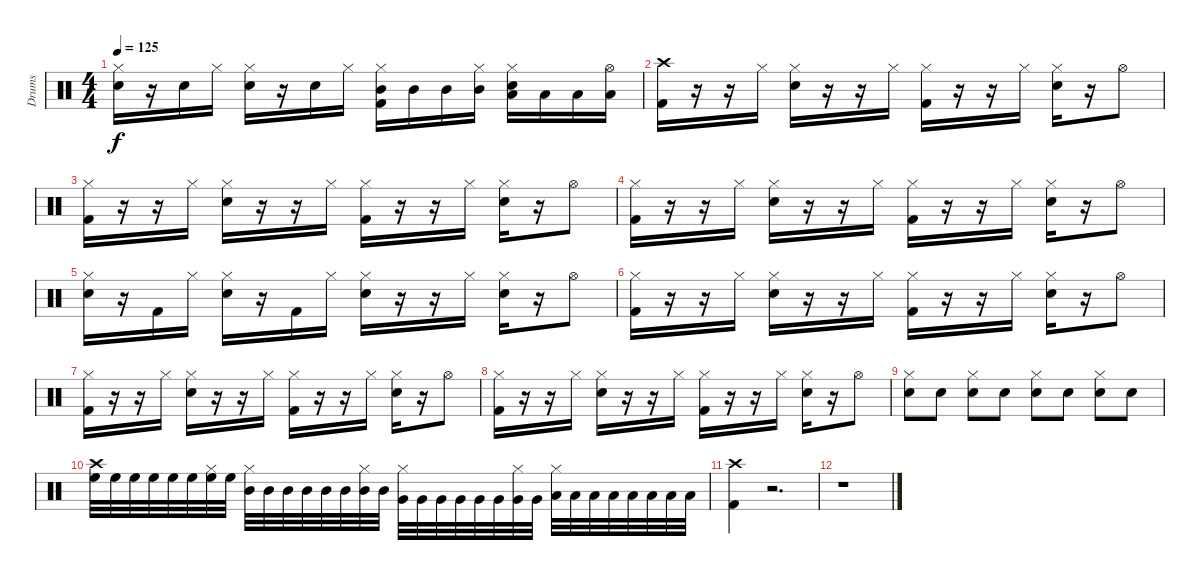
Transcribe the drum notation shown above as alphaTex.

\track ("Drums" "Drums") {instrument percussion}
\staff {score}
\articulation defaults
\ts (4 4)
\tempo 125
\clef neutral
\ks c
("Hi-Hat (closed)" "Electric Snare (hit)").16{dy f} r.16 "Electric Snare (hit)".16 "Hi-Hat (closed)".16 ("Hi-Hat (closed)" "Electric Snare (hit)").16 r.16 "Electric Snare (hit)".16 "Hi-Hat (closed)".16 ("Hi-Hat (closed)" "Kick (hit) 2" "Mid Tom (hit)").16 "Mid Tom (hit)".16 "Mid Tom (hit)".16 ("Hi-Hat (closed)" "Mid Tom (hit)").16 ("Hi-Hat (closed)" "Electric Snare (hit)" "Low Tom (hit)").16 "Low Tom (hit)".16 "Low Tom (hit)".16 ("Hi-Hat (open)" "Low Tom (hit)").16 |
("Crash high (hit)" "Kick (hit) 2").16 r.16 r.16 "Hi-Hat (closed)".16 ("Hi-Hat (closed)" "Electric Snare (hit)").16 r.16 r.16 "Hi-Hat (closed)".16 ("Hi-Hat (closed)" "Kick (hit) 2").16 r.16 r.16 "Hi-Hat (closed)".16 ("Hi-Hat (closed)" "Electric Snare (hit)").16 r.16 "Hi-Hat (open)".8 |
("Hi-Hat (closed)" "Kick (hit) 2").16 r.16 r.16 "Hi-Hat (closed)".16 ("Hi-Hat (closed)" "Electric Snare (hit)").16 r.16 r.16 "Hi-Hat (closed)".16 ("Hi-Hat (closed)" "Kick (hit) 2").16 r.16 r.16 "Hi-Hat (closed)".16 ("Hi-Hat (closed)" "Electric Snare (hit)").16 r.16 "Hi-Hat (open)".8 |
("Hi-Hat (closed)" "Kick (hit) 2").16 r.16 r.16 "Hi-Hat (closed)".16 ("Hi-Hat (closed)" "Electric Snare (hit)").16 r.16 r.16 "Hi-Hat (closed)".16 ("Hi-Hat (closed)" "Kick (hit) 2").16 r.16 r.16 "Hi-Hat (closed)".16 ("Hi-Hat (closed)" "Electric Snare (hit)").16 r.16 "Hi-Hat (open)".8 |
("Hi-Hat (closed)" "Electric Snare (hit)").16 r.16 "Kick (hit) 2".16 "Hi-Hat (closed)".16 ("Hi-Hat (closed)" "Electric Snare (hit)").16 r.16 "Kick (hit) 2".16 "Hi-Hat (closed)".16 ("Hi-Hat (closed)" "Electric Snare (hit)").16 r.16 r.16 "Hi-Hat (closed)".16 ("Hi-Hat (closed)" "Electric Snare (hit)").16 r.16 "Hi-Hat (open)".8 |
("Hi-Hat (closed)" "Kick (hit) 2").16 r.16 r.16 "Hi-Hat (closed)".16 ("Hi-Hat (closed)" "Electric Snare (hit)").16 r.16 r.16 "Hi-Hat (closed)".16 ("Hi-Hat (closed)" "Kick (hit) 2").16 r.16 r.16 "Hi-Hat (closed)".16 ("Hi-Hat (closed)" "Electric Snare (hit)").16 r.16 "Hi-Hat (open)".8 |
("Hi-Hat (closed)" "Kick (hit) 2").16 r.16 r.16 "Hi-Hat (closed)".16 ("Hi-Hat (closed)" "Electric Snare (hit)").16 r.16 r.16 "Hi-Hat (closed)".16 ("Hi-Hat (closed)" "Kick (hit) 2").16 r.16 r.16 "Hi-Hat (closed)".16 ("Hi-Hat (closed)" "Electric Snare (hit)").16 r.16 "Hi-Hat (open)".8 |
("Hi-Hat (closed)" "Kick (hit) 2").16 r.16 r.16 "Hi-Hat (closed)".16 ("Hi-Hat (closed)" "Electric Snare (hit)").16 r.16 r.16 "Hi-Hat (closed)".16 ("Hi-Hat (closed)" "Kick (hit) 2").16 r.16 r.16 "Hi-Hat (closed)".16 ("Hi-Hat (closed)" "Electric Snare (hit)").16 r.16 "Hi-Hat (open)".8 |
("Hi-Hat (closed)" "Electric Snare (hit)").8 "Electric Snare (hit)".8 ("Hi-Hat (closed)" "Electric Snare (hit)").8 "Electric Snare (hit)".8 ("Hi-Hat (closed)" "Electric Snare (hit)").8 "Electric Snare (hit)".8 ("Hi-Hat (closed)" "Electric Snare (hit)").8 "Electric Snare (hit)".8 |
("Crash high (hit)" "High Floor Tom (hit)").32 "High Floor Tom (hit)".32 "High Floor Tom (hit)".32 "High Floor Tom (hit)".32 "High Floor Tom (hit)".32 "High Floor Tom (hit)".32 ("Hi-Hat (closed)" "High Floor Tom (hit)").32 "High Floor Tom (hit)".32 ("Hi-Hat (closed)" "Mid Tom (hit)").32 "Mid Tom (hit)".32 "Mid Tom (hit)".32 "Mid Tom (hit)".32 "Mid Tom (hit)".32 "Mid Tom (hit)".32 ("Hi-Hat (closed)" "Mid Tom (hit)").32 "Mid Tom (hit)".32 ("Hi-Hat (closed)" "Very Low Tom (hit)").32 "Very Low Tom (hit)".32 "Very Low Tom (hit)".32 "Very Low Tom (hit)".32 "Very Low Tom (hit)".32 "Very Low Tom (hit)".32 ("Hi-Hat (closed)" "Very Low Tom (hit)").32 "Very Low Tom (hit)".32 ("Hi-Hat (closed)" "Low Floor Tom (hit)").32 "Low Floor Tom (hit)".32 "Low Floor Tom (hit)".32 "Low Floor Tom (hit)".32 "Low Floor Tom (hit)".32 "Low Floor Tom (hit)".32 "Low Floor Tom (hit)".32 "Low Floor Tom (hit)".32 |
("Crash high (hit)" "Kick (hit) 2").4 r.2{d} |
r.1
